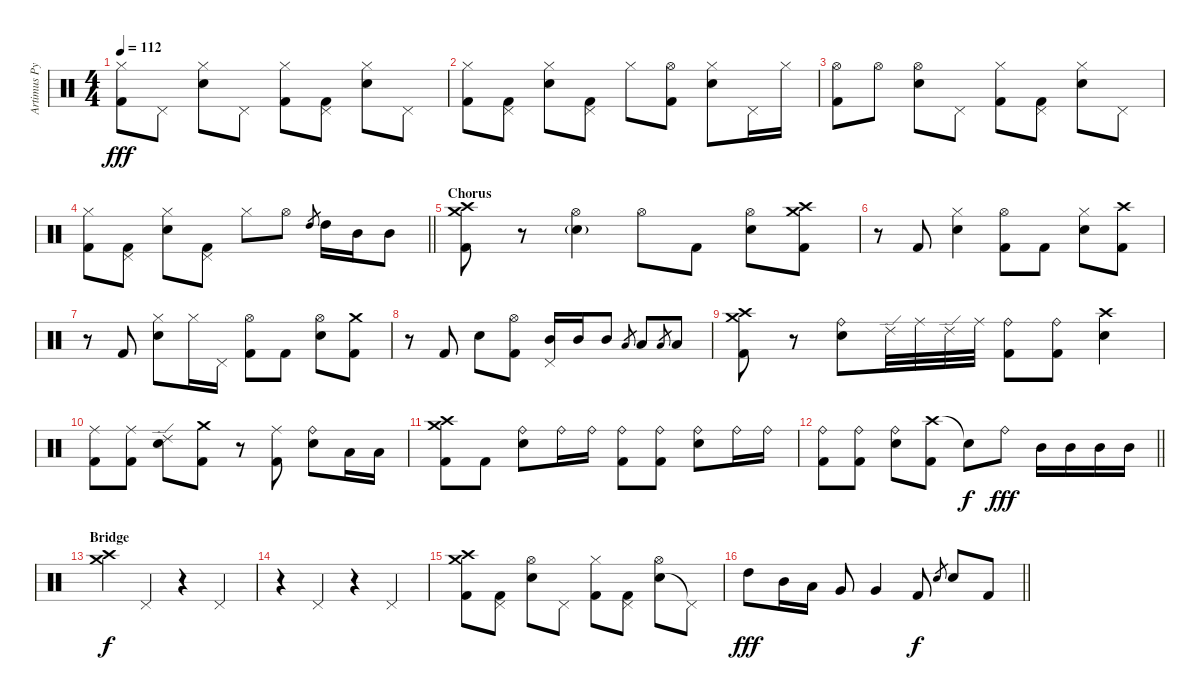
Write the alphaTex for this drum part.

\track ("Artimus Pyle" "Artimus Py") {instrument percussion}
\staff {score}
\articulation defaults
\ts (4 4)
\tempo 112
\clef neutral
\ks c
("Hi-Hat (closed)" "Kick (hit) 2").8{dy fff} "Pedal Hi-Hat (hit)".8 ("Snare (hit) 2" "Hi-Hat (closed)").8 "Pedal Hi-Hat (hit)".8 ("Hi-Hat (closed)" "Kick (hit) 2").8 ("Pedal Hi-Hat (hit)" "Kick (hit) 2").8 ("Snare (hit) 2" "Hi-Hat (closed)").8 "Pedal Hi-Hat (hit)".8 |
("Hi-Hat (closed)" "Kick (hit) 2").8 ("Pedal Hi-Hat (hit)" "Kick (hit) 2").8 ("Snare (hit) 2" "Hi-Hat (closed)").8 ("Pedal Hi-Hat (hit)" "Kick (hit) 2").8 "Hi-Hat (closed)".8 ("Hi-Hat (open)" "Kick (hit) 2").8 ("Snare (hit) 2" "Hi-Hat (closed)").8 "Pedal Hi-Hat (hit)".16 "Hi-Hat (closed)".16 |
("Hi-Hat (open)" "Kick (hit) 2").8 "Hi-Hat (open)".8 ("Snare (hit) 2" "Hi-Hat (open)").8 "Pedal Hi-Hat (hit)".8 ("Hi-Hat (closed)" "Kick (hit) 2").8 ("Pedal Hi-Hat (hit)" "Kick (hit) 2").8 ("Snare (hit) 2" "Hi-Hat (closed)").8 "Pedal Hi-Hat (hit)".8 |
\barLineRight lightlight
("Hi-Hat (closed)" "Kick (hit) 2").8 ("Pedal Hi-Hat (hit)" "Kick (hit) 2").8 ("Snare (hit) 2" "Hi-Hat (closed)").8 ("Pedal Hi-Hat (hit)" "Kick (hit) 2").8 "Hi-Hat (closed)".8 "Hi-Hat (open)".8 "High Tom (hit)".8{gr} "High Tom (hit)".16 "Mid Tom (hit)".16 "Mid Tom (hit)".8 |
\section ("" "Chorus")
("Crash medium (hit)" "Crash high (hit)" "Kick (hit) 2").8 r.8 ("Snare (hit) 2"{g} "Hi-Hat (open)").4 "Hi-Hat (open)".8 "Kick (hit) 2".8 ("Snare (hit) 2" "Hi-Hat (open)").8 ("Crash medium (hit)" "Crash high (hit)" "Kick (hit) 2").8 |
r.8 "Kick (hit) 2".8 ("Snare (hit) 2" "Hi-Hat (closed)").4 ("Hi-Hat (open)" "Kick (hit) 2").8 "Kick (hit) 2".8 ("Snare (hit) 2" "Hi-Hat (closed)").8 ("Crash high (hit)" "Kick (hit) 2").8 |
r.8 "Kick (hit) 2".8 ("Snare (hit) 2" "Hi-Hat (closed)").8 "Hi-Hat (closed)".16 "Pedal Hi-Hat (hit)".16 ("Hi-Hat (open)" "Kick (hit) 2").8 "Kick (hit) 2".8 ("Snare (hit) 2" "Hi-Hat (open)").8 ("Crash medium (hit)" "Kick (hit) 2").8 |
r.8 "Kick (hit) 2".8 "Snare (hit) 2".8 ("Hi-Hat (open)" "Kick (hit) 2").8 ("Mid Tom (hit)" "Pedal Hi-Hat (hit)").16 "Mid Tom (hit)".16 "Mid Tom (hit)".8 "Low Tom (hit)".8{gr} "Low Tom (hit)".8 "Low Tom (hit)".8{gr} "Low Tom (hit)".8 |
("Crash medium (hit)" "Crash high (hit)" "Kick (hit) 2").8 r.8 ("Ride (bell)" "Snare (hit) 2").8 "Ride (edge) 2".32 "Ride (middle)".32 "Ride (edge) 2".32 "Ride (middle)".32 ("Ride (bell)" "Kick (hit) 2").8 ("Ride (bell)" "Kick (hit) 2").8 ("Crash high (hit)" "Snare (hit) 2").4 |
("Ride (middle)" "Kick (hit) 2").8 ("Ride (middle)" "Kick (hit) 2").8 ("Ride (edge) 2" "Snare (hit) 2").8 ("Crash medium (hit)" "Kick (hit) 2").8 r.8 ("Ride (middle)" "Kick (hit) 2").8 ("Ride (bell)" "Snare (hit) 2").8 "Low Tom (hit)".16 "Low Tom (hit)".16 |
("Crash medium (hit)" "Crash high (hit)" "Kick (hit) 2").8 "Kick (hit) 2".8 ("Ride (bell)" "Snare (hit) 2").8 "Ride (bell)".16 "Ride (bell)".16 ("Ride (bell)" "Kick (hit) 2").8 ("Ride (bell)" "Kick (hit) 2").8 ("Ride (bell)" "Snare (hit) 2").8 "Ride (bell)".16 "Ride (bell)".16 |
\barLineRight lightlight
("Ride (bell)" "Kick (hit) 2").8 ("Ride (bell)" "Kick (hit) 2").8 ("Ride (bell)" "Snare (hit) 2").8 ("Crash high (hit)" "Kick (hit) 2").8 "Snare (hit)"{t}.8{dy f} "Ride (bell)".8{dy fff} "Mid Tom (hit)".16 "Mid Tom (hit)".16 "Mid Tom (hit)".16 "Mid Tom (hit)".16 |
\section ("" "Bridge")
("Crash medium (hit)" "Crash high (hit)").4{dy f} "Pedal Hi-Hat (hit)".4 r.4 "Pedal Hi-Hat (hit)".4 |
r.4 "Pedal Hi-Hat (hit)".4 r.4 "Pedal Hi-Hat (hit)".4 |
("Crash medium (hit)" "Crash high (hit)" "Kick (hit) 2").8 ("Pedal Hi-Hat (hit)" "Kick (hit) 2").8 ("Snare (hit) 2" "Hi-Hat (open)").8 "Pedal Hi-Hat (hit)".8 ("Hi-Hat (closed)" "Kick (hit) 2").8 ("Pedal Hi-Hat (hit)" "Kick (hit) 2").8 ("Snare (hit) 2" "Hi-Hat (open)").8 "Pedal Hi-Hat (hit)"{t}.8 |
\barLineRight lightlight "High Tom (hit)".8{dy fff} "Mid Tom (hit)".16 "Low Tom (hit)".16 "Very Low Tom (hit)".8 "Very Low Tom (hit)".4 "Kick (hit) 2".8{dy f} "Snare (hit) 2".8{gr} "Snare (hit) 2".8 "Kick (hit) 2".8
